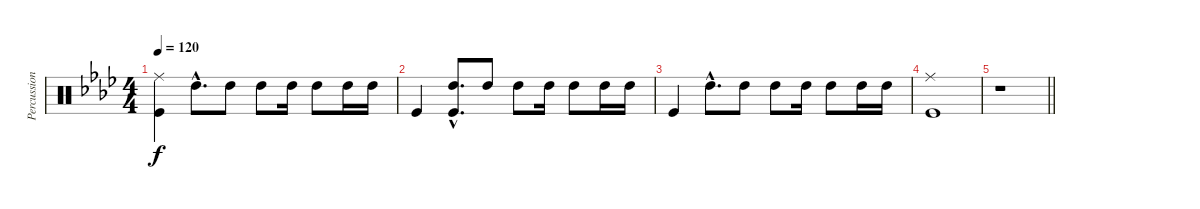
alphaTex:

\track ("Percussion" "Percussion") {instrument percussion}
\staff {score}
\articulation defaults
\ts (4 4)
\tempo 120
\clef neutral
\ks fminor
("Ride (middle)" "Kick (hit)").4{dy f} "High Tom (hit)"{hac}.8{d} "High Tom (hit)".8 "High Tom (hit)".8 "High Tom (hit)".16 "High Tom (hit)".8 "High Tom (hit)".16 "High Tom (hit)".16 |
"Kick (hit)".4 ("High Tom (hit)"{hac} "Kick (hit)"{hac}).8{d} "High Tom (hit)".8 "High Tom (hit)".8 "High Tom (hit)".16 "High Tom (hit)".8 "High Tom (hit)".16 "High Tom (hit)".16 |
"Kick (hit)".4 "High Tom (hit)"{hac}.8{d} "High Tom (hit)".8 "High Tom (hit)".8 "High Tom (hit)".16 "High Tom (hit)".8 "High Tom (hit)".16 "High Tom (hit)".16 |
("Ride (middle)" "Kick (hit)").1 |
\barLineRight lightlight
r.1
